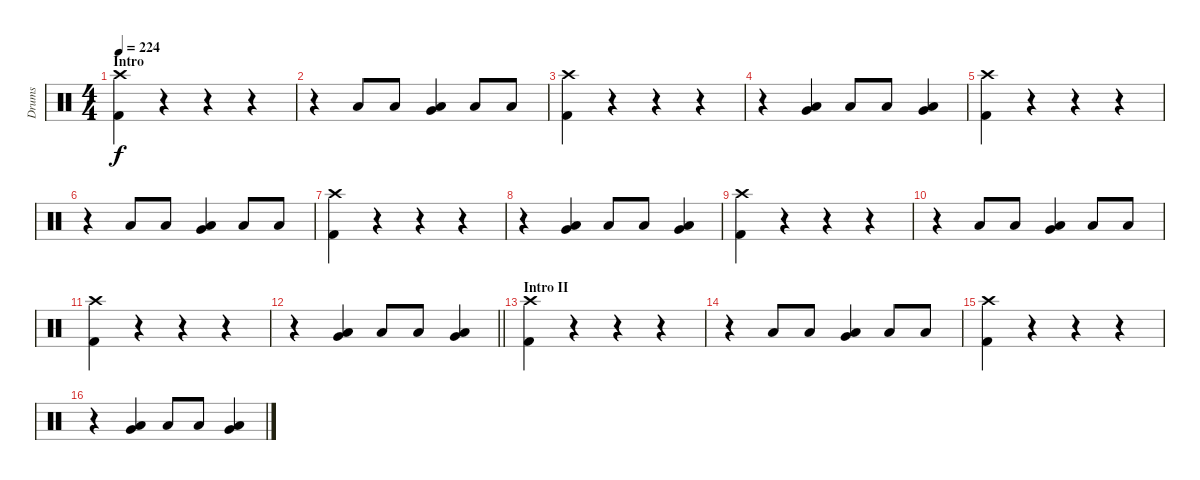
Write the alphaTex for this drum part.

\track ("Drums" "Drums") {instrument percussion}
\staff {score}
\articulation defaults
\ts (4 4)
\section ("" "Intro")
\tempo 224
\clef neutral
\ks c
("Crash high (hit)" "Kick (hit) 2").4{dy f} r.4 r.4 r.4 |
r.4 "Low Tom (hit)".8 "Low Tom (hit)".8 ("Low Tom (hit)" "Very Low Tom (hit)").4 "Low Tom (hit)".8 "Low Tom (hit)".8 |
("Crash high (hit)" "Kick (hit) 2").4 r.4 r.4 r.4 |
r.4 ("Low Tom (hit)" "Very Low Tom (hit)").4 "Low Tom (hit)".8 "Low Tom (hit)".8 ("Low Tom (hit)" "Very Low Tom (hit)").4 |
("Crash high (hit)" "Kick (hit) 2").4 r.4 r.4 r.4 |
r.4 "Low Tom (hit)".8 "Low Tom (hit)".8 ("Low Tom (hit)" "Very Low Tom (hit)").4 "Low Tom (hit)".8 "Low Tom (hit)".8 |
("Crash high (hit)" "Kick (hit) 2").4 r.4 r.4 r.4 |
r.4 ("Low Tom (hit)" "Very Low Tom (hit)").4 "Low Tom (hit)".8 "Low Tom (hit)".8 ("Low Tom (hit)" "Very Low Tom (hit)").4 |
("Crash high (hit)" "Kick (hit) 2").4 r.4 r.4 r.4 |
r.4 "Low Tom (hit)".8 "Low Tom (hit)".8 ("Low Tom (hit)" "Very Low Tom (hit)").4 "Low Tom (hit)".8 "Low Tom (hit)".8 |
("Crash high (hit)" "Kick (hit) 2").4 r.4 r.4 r.4 |
\barLineRight lightlight
r.4 ("Low Tom (hit)" "Very Low Tom (hit)").4 "Low Tom (hit)".8 "Low Tom (hit)".8 ("Low Tom (hit)" "Very Low Tom (hit)").4 |
\section ("" "Intro II")
("Crash high (hit)" "Kick (hit) 2").4 r.4 r.4 r.4 |
r.4 "Low Tom (hit)".8 "Low Tom (hit)".8 ("Low Tom (hit)" "Very Low Tom (hit)").4 "Low Tom (hit)".8 "Low Tom (hit)".8 |
("Crash high (hit)" "Kick (hit) 2").4 r.4 r.4 r.4 |
r.4 ("Low Tom (hit)" "Very Low Tom (hit)").4 "Low Tom (hit)".8 "Low Tom (hit)".8 ("Low Tom (hit)" "Very Low Tom (hit)").4
